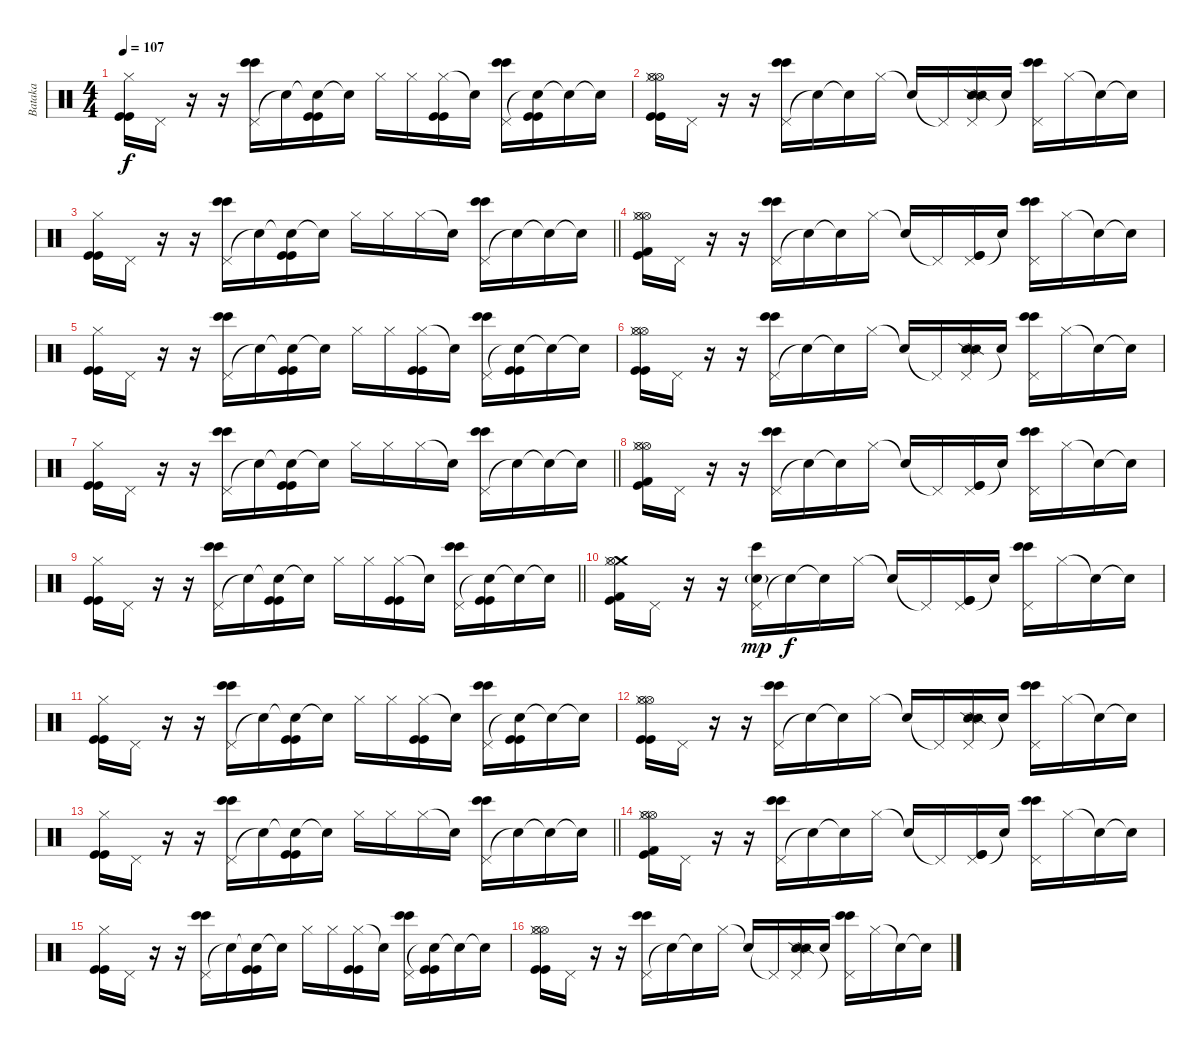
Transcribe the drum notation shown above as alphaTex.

\track ("Bataka" "Bataka") {instrument percussion}
\staff {score}
\articulation defaults
\ts (4 4)
\tempo 107
\clef neutral
\ks c
("Hi-Hat (closed)" "Kick (hit)" "Kick (hit)").16{dy f} "Pedal Hi-Hat (hit)".16 r.16 r.16 ("Pedal Hi-Hat (hit)" "Bongo High (hit)" "Bongo High (hit)").16 "Snare (hit)"{t}.16 ("Snare (hit)"{t} "Kick (hit)" "Kick (hit)").16 "Snare (hit)"{t}.16 "Hi-Hat (closed)".16 "Hi-Hat (closed)".16 ("Hi-Hat (closed)" "Kick (hit)" "Kick (hit)").16 "Snare (hit)"{t}.16 ("Pedal Hi-Hat (hit)" "Bongo High (hit)" "Bongo High (hit)").16 ("Snare (hit)"{t} "Kick (hit)" "Kick (hit)").16 "Snare (hit)"{t}.16 "Snare (hit)"{t}.16 |
("Hi-Hat (open)" "Hi-Hat (open)" "Hi-Hat (closed)" "Kick (hit)" "Kick (hit)").16 "Pedal Hi-Hat (hit)".16 r.16 r.16 ("Pedal Hi-Hat (hit)" "Bongo High (hit)" "Bongo High (hit)").16 "Snare (hit)"{t}.16 "Snare (hit)"{t}.16 "Hi-Hat (closed)".16 "Snare (hit)"{t}.16 "Pedal Hi-Hat (hit)"{t}.16 ("Pedal Hi-Hat (hit)" "Snare (side stick) 2" "Snare (side stick) 2").16 "Snare (hit)"{t}.16 ("Pedal Hi-Hat (hit)" "Bongo High (hit)" "Bongo High (hit)").16 "Hi-Hat (closed)".16 "Snare (hit)"{t}.16 "Snare (hit)"{t}.16 |
\barLineRight lightlight
("Hi-Hat (closed)" "Kick (hit)" "Kick (hit)").16 "Pedal Hi-Hat (hit)".16 r.16 r.16 ("Pedal Hi-Hat (hit)" "Bongo High (hit)" "Bongo High (hit)").16 "Snare (hit)"{t}.16 ("Snare (hit)"{t} "Kick (hit)" "Kick (hit)").16 "Snare (hit)"{t}.16 "Hi-Hat (closed)".16 "Hi-Hat (closed)".16 "Hi-Hat (closed)".16 "Snare (hit)"{t}.16 ("Pedal Hi-Hat (hit)" "Bongo High (hit)" "Bongo High (hit)").16 "Snare (hit)"{t}.16 "Snare (hit)"{t}.16 "Snare (hit)"{t}.16 |
("Hi-Hat (open)" "Hi-Hat (open)" "Hi-Hat (closed)" "Kick (hit)" "Kick (hit) 2").16 "Pedal Hi-Hat (hit)".16 r.16 r.16 ("Pedal Hi-Hat (hit)" "Bongo High (hit)" "Bongo High (hit)").16 "Snare (hit)"{t}.16 "Snare (hit)"{t}.16 "Hi-Hat (closed)".16 "Snare (hit)"{t}.16 "Pedal Hi-Hat (hit)"{t}.16 ("Pedal Hi-Hat (hit)" "Kick (hit)" "Kick (hit)").16 "Snare (hit)"{t}.16 ("Pedal Hi-Hat (hit)" "Bongo High (hit)" "Bongo High (hit)").16 "Hi-Hat (closed)".16 "Snare (hit)"{t}.16 "Snare (hit)"{t}.16 |
("Hi-Hat (closed)" "Kick (hit)" "Kick (hit)").16 "Pedal Hi-Hat (hit)".16 r.16 r.16 ("Pedal Hi-Hat (hit)" "Bongo High (hit)" "Bongo High (hit)").16 "Snare (hit)"{t}.16 ("Snare (hit)"{t} "Kick (hit)" "Kick (hit)").16 "Snare (hit)"{t}.16 "Hi-Hat (closed)".16 "Hi-Hat (closed)".16 ("Hi-Hat (closed)" "Kick (hit)" "Kick (hit)").16 "Snare (hit)"{t}.16 ("Pedal Hi-Hat (hit)" "Bongo High (hit)" "Bongo High (hit)").16 ("Snare (hit)"{t} "Kick (hit)" "Kick (hit)").16 "Snare (hit)"{t}.16 "Snare (hit)"{t}.16 |
("Hi-Hat (open)" "Hi-Hat (open)" "Hi-Hat (closed)" "Kick (hit)" "Kick (hit)").16 "Pedal Hi-Hat (hit)".16 r.16 r.16 ("Pedal Hi-Hat (hit)" "Bongo High (hit)" "Bongo High (hit)").16 "Snare (hit)"{t}.16 "Snare (hit)"{t}.16 "Hi-Hat (closed)".16 "Snare (hit)"{t}.16 "Pedal Hi-Hat (hit)"{t}.16 ("Pedal Hi-Hat (hit)" "Snare (side stick) 2" "Snare (side stick) 2").16 "Snare (hit)"{t}.16 ("Pedal Hi-Hat (hit)" "Bongo High (hit)" "Bongo High (hit)").16 "Hi-Hat (closed)".16 "Snare (hit)"{t}.16 "Snare (hit)"{t}.16 |
\barLineRight lightlight
("Hi-Hat (closed)" "Kick (hit)" "Kick (hit)").16 "Pedal Hi-Hat (hit)".16 r.16 r.16 ("Pedal Hi-Hat (hit)" "Bongo High (hit)" "Bongo High (hit)").16 "Snare (hit)"{t}.16 ("Snare (hit)"{t} "Kick (hit)" "Kick (hit)").16 "Snare (hit)"{t}.16 "Hi-Hat (closed)".16 "Hi-Hat (closed)".16 "Hi-Hat (closed)".16 "Snare (hit)"{t}.16 ("Pedal Hi-Hat (hit)" "Bongo High (hit)" "Bongo High (hit)").16 "Snare (hit)"{t}.16 "Snare (hit)"{t}.16 "Snare (hit)"{t}.16 |
("Hi-Hat (open)" "Hi-Hat (open)" "Hi-Hat (closed)" "Kick (hit)" "Kick (hit) 2").16 "Pedal Hi-Hat (hit)".16 r.16 r.16 ("Pedal Hi-Hat (hit)" "Bongo High (hit)" "Bongo High (hit)").16 "Snare (hit)"{t}.16 "Snare (hit)"{t}.16 "Hi-Hat (closed)".16 "Snare (hit)"{t}.16 "Pedal Hi-Hat (hit)"{t}.16 ("Pedal Hi-Hat (hit)" "Kick (hit)" "Kick (hit)").16 "Snare (hit)"{t}.16 ("Pedal Hi-Hat (hit)" "Bongo High (hit)" "Bongo High (hit)").16 "Hi-Hat (closed)".16 "Snare (hit)"{t}.16 "Snare (hit)"{t}.16 |
\barLineRight lightlight
("Hi-Hat (closed)" "Kick (hit)" "Kick (hit)").16 "Pedal Hi-Hat (hit)".16 r.16 r.16 ("Pedal Hi-Hat (hit)" "Bongo High (hit)" "Bongo High (hit)").16 "Snare (hit)"{t}.16 ("Snare (hit)"{t} "Kick (hit)" "Kick (hit)").16 "Snare (hit)"{t}.16 "Hi-Hat (closed)".16 "Hi-Hat (closed)".16 ("Hi-Hat (closed)" "Kick (hit)" "Kick (hit)").16 "Snare (hit)"{t}.16 ("Pedal Hi-Hat (hit)" "Bongo High (hit)" "Bongo High (hit)").16 ("Snare (hit)"{t} "Kick (hit)" "Kick (hit)").16 "Snare (hit)"{t}.16 "Snare (hit)"{t}.16 |
("Crash medium (hit)" "Hi-Hat (open)" "Hi-Hat (closed)" "Kick (hit)" "Kick (hit) 2").16 "Pedal Hi-Hat (hit)".16 r.16 r.16 ("Pedal Hi-Hat (hit)" "Bongo High (hit)" "Electric Snare (hit)"{g}).16{dy mp} "Snare (hit)"{t}.16{dy f} "Snare (hit)"{t}.16 "Hi-Hat (closed)".16 "Snare (hit)"{t}.16 "Pedal Hi-Hat (hit)"{t}.16 ("Pedal Hi-Hat (hit)" "Kick (hit)" "Kick (hit)").16 "Snare (hit)"{t}.16 ("Pedal Hi-Hat (hit)" "Bongo High (hit)" "Bongo High (hit)").16 "Hi-Hat (closed)".16 "Snare (hit)"{t}.16 "Snare (hit)"{t}.16 |
("Hi-Hat (closed)" "Kick (hit)" "Kick (hit)").16 "Pedal Hi-Hat (hit)".16 r.16 r.16 ("Pedal Hi-Hat (hit)" "Bongo High (hit)" "Bongo High (hit)").16 "Snare (hit)"{t}.16 ("Snare (hit)"{t} "Kick (hit)" "Kick (hit)").16 "Snare (hit)"{t}.16 "Hi-Hat (closed)".16 "Hi-Hat (closed)".16 ("Hi-Hat (closed)" "Kick (hit)" "Kick (hit)").16 "Snare (hit)"{t}.16 ("Pedal Hi-Hat (hit)" "Bongo High (hit)" "Bongo High (hit)").16 ("Snare (hit)"{t} "Kick (hit)" "Kick (hit)").16 "Snare (hit)"{t}.16 "Snare (hit)"{t}.16 |
("Hi-Hat (open)" "Hi-Hat (open)" "Hi-Hat (closed)" "Kick (hit)" "Kick (hit)").16 "Pedal Hi-Hat (hit)".16 r.16 r.16 ("Pedal Hi-Hat (hit)" "Bongo High (hit)" "Bongo High (hit)").16 "Snare (hit)"{t}.16 "Snare (hit)"{t}.16 "Hi-Hat (closed)".16 "Snare (hit)"{t}.16 "Pedal Hi-Hat (hit)"{t}.16 ("Pedal Hi-Hat (hit)" "Snare (side stick) 2" "Snare (side stick) 2").16 "Snare (hit)"{t}.16 ("Pedal Hi-Hat (hit)" "Bongo High (hit)" "Bongo High (hit)").16 "Hi-Hat (closed)".16 "Snare (hit)"{t}.16 "Snare (hit)"{t}.16 |
\barLineRight lightlight
("Hi-Hat (closed)" "Kick (hit)" "Kick (hit)").16 "Pedal Hi-Hat (hit)".16 r.16 r.16 ("Pedal Hi-Hat (hit)" "Bongo High (hit)" "Bongo High (hit)").16 "Snare (hit)"{t}.16 ("Snare (hit)"{t} "Kick (hit)" "Kick (hit)").16 "Snare (hit)"{t}.16 "Hi-Hat (closed)".16 "Hi-Hat (closed)".16 "Hi-Hat (closed)".16 "Snare (hit)"{t}.16 ("Pedal Hi-Hat (hit)" "Bongo High (hit)" "Bongo High (hit)").16 "Snare (hit)"{t}.16 "Snare (hit)"{t}.16 "Snare (hit)"{t}.16 |
("Hi-Hat (open)" "Hi-Hat (open)" "Hi-Hat (closed)" "Kick (hit)" "Kick (hit) 2").16 "Pedal Hi-Hat (hit)".16 r.16 r.16 ("Pedal Hi-Hat (hit)" "Bongo High (hit)" "Bongo High (hit)").16 "Snare (hit)"{t}.16 "Snare (hit)"{t}.16 "Hi-Hat (closed)".16 "Snare (hit)"{t}.16 "Pedal Hi-Hat (hit)"{t}.16 ("Pedal Hi-Hat (hit)" "Kick (hit)" "Kick (hit)").16 "Snare (hit)"{t}.16 ("Pedal Hi-Hat (hit)" "Bongo High (hit)" "Bongo High (hit)").16 "Hi-Hat (closed)".16 "Snare (hit)"{t}.16 "Snare (hit)"{t}.16 |
("Hi-Hat (closed)" "Kick (hit)" "Kick (hit)").16 "Pedal Hi-Hat (hit)".16 r.16 r.16 ("Pedal Hi-Hat (hit)" "Bongo High (hit)" "Bongo High (hit)").16 "Snare (hit)"{t}.16 ("Snare (hit)"{t} "Kick (hit)" "Kick (hit)").16 "Snare (hit)"{t}.16 "Hi-Hat (closed)".16 "Hi-Hat (closed)".16 ("Hi-Hat (closed)" "Kick (hit)" "Kick (hit)").16 "Snare (hit)"{t}.16 ("Pedal Hi-Hat (hit)" "Bongo High (hit)" "Bongo High (hit)").16 ("Snare (hit)"{t} "Kick (hit)" "Kick (hit)").16 "Snare (hit)"{t}.16 "Snare (hit)"{t}.16 |
("Hi-Hat (open)" "Hi-Hat (open)" "Hi-Hat (closed)" "Kick (hit)" "Kick (hit)").16 "Pedal Hi-Hat (hit)".16 r.16 r.16 ("Pedal Hi-Hat (hit)" "Bongo High (hit)" "Bongo High (hit)").16 "Snare (hit)"{t}.16 "Snare (hit)"{t}.16 "Hi-Hat (closed)".16 "Snare (hit)"{t}.16 "Pedal Hi-Hat (hit)"{t}.16 ("Pedal Hi-Hat (hit)" "Snare (side stick) 2" "Snare (side stick) 2").16 "Snare (hit)"{t}.16 ("Pedal Hi-Hat (hit)" "Bongo High (hit)" "Bongo High (hit)").16 "Hi-Hat (closed)".16 "Snare (hit)"{t}.16 "Snare (hit)"{t}.16
